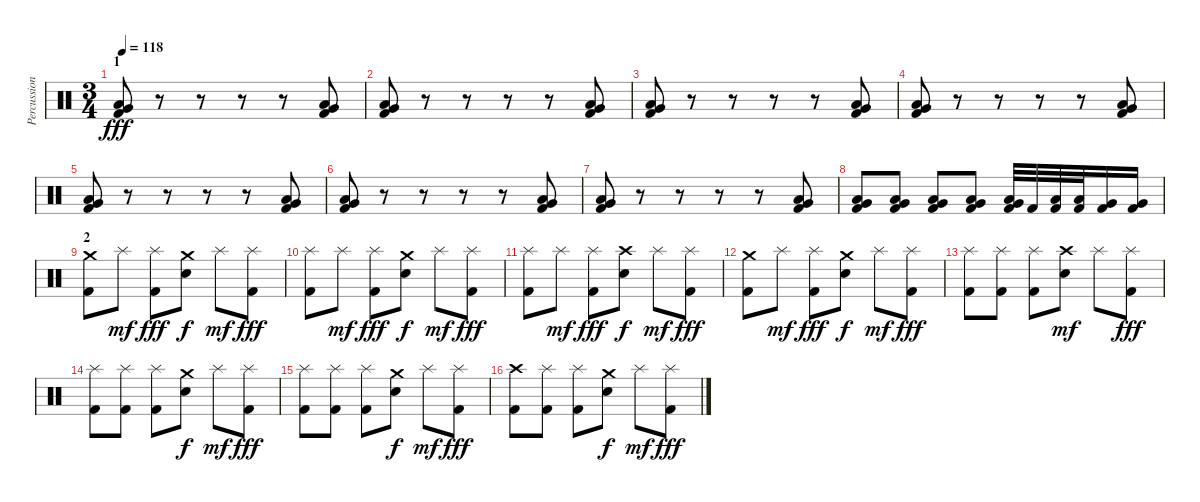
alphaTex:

\track ("Percussion" "Percussion") {instrument percussion}
\staff {score}
\articulation defaults
\ts (3 4)
\section ("" "1")
\tempo 118
\clef neutral
\ks c
("Very Low Tom (hit)" "Low Tom (hit)" "Kick (hit) 2").8{dy fff} r.8 r.8 r.8 r.8 ("Very Low Tom (hit)" "Low Tom (hit)" "Kick (hit) 2").8 |
("Very Low Tom (hit)" "Low Tom (hit)" "Kick (hit) 2").8 r.8 r.8 r.8 r.8 ("Very Low Tom (hit)" "Low Tom (hit)" "Kick (hit) 2").8 |
("Very Low Tom (hit)" "Low Tom (hit)" "Kick (hit) 2").8 r.8 r.8 r.8 r.8 ("Very Low Tom (hit)" "Low Tom (hit)" "Kick (hit) 2").8 |
("Very Low Tom (hit)" "Low Tom (hit)" "Kick (hit) 2").8 r.8 r.8 r.8 r.8 ("Very Low Tom (hit)" "Low Tom (hit)" "Kick (hit) 2").8 |
("Very Low Tom (hit)" "Low Tom (hit)" "Kick (hit) 2").8 r.8 r.8 r.8 r.8 ("Very Low Tom (hit)" "Low Tom (hit)" "Kick (hit) 2").8 |
("Very Low Tom (hit)" "Low Tom (hit)" "Kick (hit) 2").8 r.8 r.8 r.8 r.8 ("Very Low Tom (hit)" "Low Tom (hit)" "Kick (hit) 2").8 |
("Very Low Tom (hit)" "Low Tom (hit)" "Kick (hit) 2").8 r.8 r.8 r.8 r.8 ("Very Low Tom (hit)" "Low Tom (hit)" "Kick (hit) 2").8 |
("Very Low Tom (hit)" "Low Tom (hit)" "Kick (hit) 2").8 ("Very Low Tom (hit)" "Low Tom (hit)" "Kick (hit) 2").8 ("Very Low Tom (hit)" "Low Tom (hit)" "Kick (hit) 2").8 ("Very Low Tom (hit)" "Low Tom (hit)" "Kick (hit) 2").8 ("Very Low Tom (hit)" "Low Tom (hit)" "Kick (hit) 2").32 "Kick (hit) 2".32 ("Low Tom (hit)" "Kick (hit) 2").32 ("Low Tom (hit)" "Kick (hit) 2").32 ("Very Low Tom (hit)" "Kick (hit) 2").16 ("Very Low Tom (hit)" "Kick (hit) 2").16 |
\section ("" "2")
("Crash medium (hit)" "Kick (hit) 2").8 "Splash (hit)".8{dy mf} ("Splash (hit)" "Kick (hit) 2").8{dy fff} ("Crash medium (hit)" "Electric Snare (hit)").8{dy f} "Splash (hit)".8{dy mf} ("Splash (hit)" "Kick (hit) 2").8{dy fff} |
("Splash (hit)" "Kick (hit) 2").8 "Splash (hit)".8{dy mf} ("Splash (hit)" "Kick (hit) 2").8{dy fff} ("Crash medium (hit)" "Electric Snare (hit)").8{dy f} "Splash (hit)".8{dy mf} ("Splash (hit)" "Kick (hit) 2").8{dy fff} |
("Splash (hit)" "Kick (hit) 2").8 "Splash (hit)".8{dy mf} ("Splash (hit)" "Kick (hit) 2").8{dy fff} ("Crash high (hit)" "Electric Snare (hit)").8{dy f} "Splash (hit)".8{dy mf} ("Splash (hit)" "Kick (hit) 2").8{dy fff} |
("Crash medium (hit)" "Kick (hit) 2").8 "Splash (hit)".8{dy mf} ("Splash (hit)" "Kick (hit) 2").8{dy fff} ("Crash medium (hit)" "Electric Snare (hit)").8{dy f} "Splash (hit)".8{dy mf} ("Splash (hit)" "Kick (hit) 2").8{dy fff} |
("Splash (hit)" "Kick (hit) 2").8 ("Splash (hit)" "Kick (hit) 2").8 ("Splash (hit)" "Kick (hit) 2").8 ("Crash high (hit)" "Electric Snare (hit)").8{dy mf} "Splash (hit)".8 ("Splash (hit)" "Kick (hit) 2").8{dy fff} |
("Splash (hit)" "Kick (hit) 2").8 ("Splash (hit)" "Kick (hit) 2").8 ("Splash (hit)" "Kick (hit) 2").8 ("Crash medium (hit)" "Electric Snare (hit)").8{dy f} "Splash (hit)".8{dy mf} ("Splash (hit)" "Kick (hit) 2").8{dy fff} |
("Splash (hit)" "Kick (hit) 2").8 ("Splash (hit)" "Kick (hit) 2").8 ("Splash (hit)" "Kick (hit) 2").8 ("Crash medium (hit)" "Electric Snare (hit)").8{dy f} "Splash (hit)".8{dy mf} ("Splash (hit)" "Kick (hit) 2").8{dy fff} |
("Crash high (hit)" "Kick (hit) 2").8 ("Splash (hit)" "Kick (hit) 2").8 ("Splash (hit)" "Kick (hit) 2").8 ("Crash medium (hit)" "Electric Snare (hit)").8{dy f} "Splash (hit)".8{dy mf} ("Splash (hit)" "Kick (hit) 2").8{dy fff}
